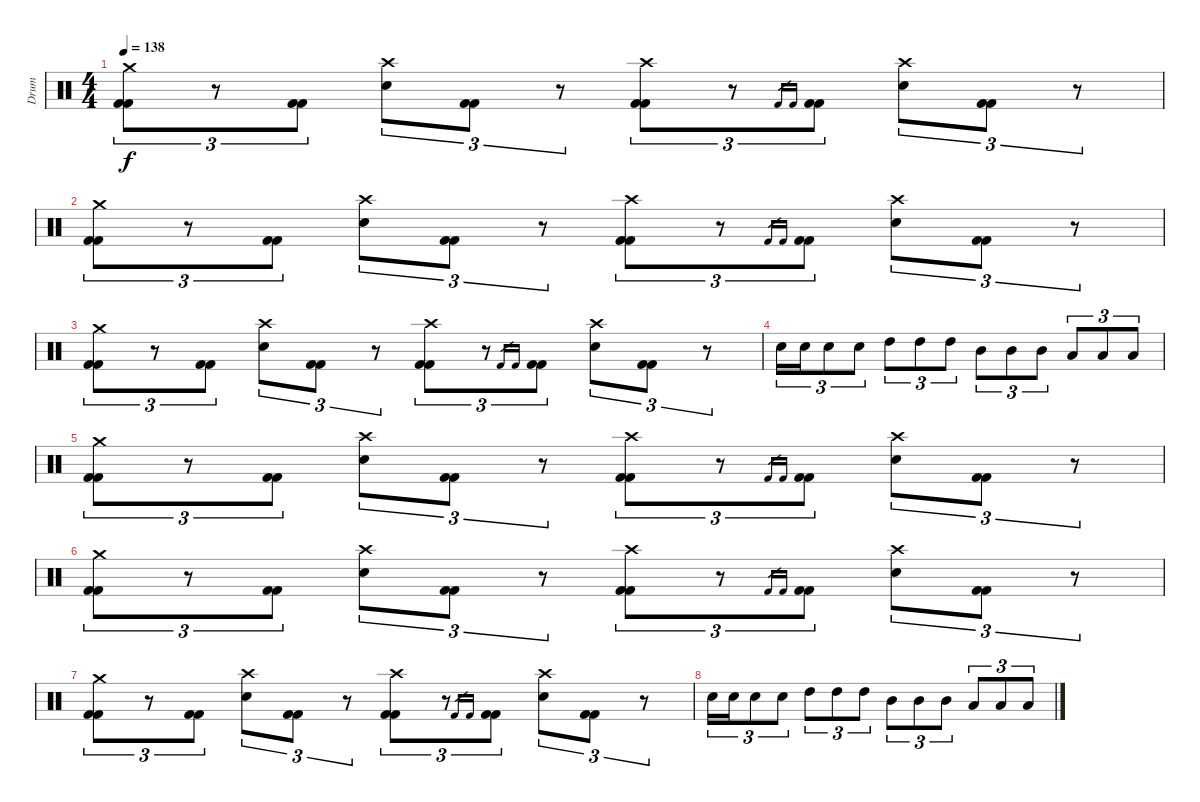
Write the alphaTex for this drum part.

\track ("Drum" "Drum") {instrument percussion}
\staff {score}
\articulation defaults
\ts (4 4)
\tempo 138
\clef neutral
\ks c
("Kick (hit) 2" "Kick (hit) 2" "Crash medium (hit)").8{tu (3 2) dy f} r.8{tu (3 2)} ("Kick (hit) 2" "Kick (hit) 2").8{tu (3 2)} ("Electric Snare (hit)" "Crash high (hit)").8{tu (3 2)} ("Kick (hit) 2" "Kick (hit) 2").8{tu (3 2)} r.8{tu (3 2)} ("Kick (hit) 2" "Kick (hit) 2" "Crash high (hit)").8{tu (3 2)} r.8{tu (3 2)} "Kick (hit) 2".16{gr} "Kick (hit) 2".16{gr} ("Kick (hit) 2" "Kick (hit) 2").8{tu (3 2)} ("Electric Snare (hit)" "Crash high (hit)").8{tu (3 2)} ("Kick (hit) 2" "Kick (hit) 2").8{tu (3 2)} r.8{tu (3 2)} |
("Kick (hit) 2" "Kick (hit) 2" "Crash medium (hit)").8{tu (3 2)} r.8{tu (3 2)} ("Kick (hit) 2" "Kick (hit) 2").8{tu (3 2)} ("Electric Snare (hit)" "Crash high (hit)").8{tu (3 2)} ("Kick (hit) 2" "Kick (hit) 2").8{tu (3 2)} r.8{tu (3 2)} ("Kick (hit) 2" "Kick (hit) 2" "Crash high (hit)").8{tu (3 2)} r.8{tu (3 2)} "Kick (hit) 2".16{gr} "Kick (hit) 2".16{gr} ("Kick (hit) 2" "Kick (hit) 2").8{tu (3 2)} ("Electric Snare (hit)" "Crash high (hit)").8{tu (3 2)} ("Kick (hit) 2" "Kick (hit) 2").8{tu (3 2)} r.8{tu (3 2)} |
("Kick (hit) 2" "Kick (hit) 2" "Crash medium (hit)").8{tu (3 2)} r.8{tu (3 2)} ("Kick (hit) 2" "Kick (hit) 2").8{tu (3 2)} ("Electric Snare (hit)" "Crash high (hit)").8{tu (3 2)} ("Kick (hit) 2" "Kick (hit) 2").8{tu (3 2)} r.8{tu (3 2)} ("Kick (hit) 2" "Kick (hit) 2" "Crash high (hit)").8{tu (3 2)} r.8{tu (3 2)} "Kick (hit) 2".16{gr} "Kick (hit) 2".16{gr} ("Kick (hit) 2" "Kick (hit) 2").8{tu (3 2)} ("Electric Snare (hit)" "Crash high (hit)").8{tu (3 2)} ("Kick (hit) 2" "Kick (hit) 2").8{tu (3 2)} r.8{tu (3 2)} |
"Electric Snare (hit)".16{tu (3 2)} "Electric Snare (hit)".16{tu (3 2)} "Electric Snare (hit)".8{tu (3 2)} "Electric Snare (hit)".8{tu (3 2)} "High Tom (hit)".8{tu (3 2)} "High Tom (hit)".8{tu (3 2)} "High Tom (hit)".8{tu (3 2)} "Mid Tom (hit)".8{tu (3 2)} "Mid Tom (hit)".8{tu (3 2)} "Mid Tom (hit)".8{tu (3 2)} "Low Tom (hit)".8{tu (3 2)} "Low Tom (hit)".8{tu (3 2)} "Low Tom (hit)".8{tu (3 2)} |
("Kick (hit) 2" "Kick (hit) 2" "Crash medium (hit)").8{tu (3 2)} r.8{tu (3 2)} ("Kick (hit) 2" "Kick (hit) 2").8{tu (3 2)} ("Electric Snare (hit)" "Crash high (hit)").8{tu (3 2)} ("Kick (hit) 2" "Kick (hit) 2").8{tu (3 2)} r.8{tu (3 2)} ("Kick (hit) 2" "Kick (hit) 2" "Crash high (hit)").8{tu (3 2)} r.8{tu (3 2)} "Kick (hit) 2".16{gr} "Kick (hit) 2".16{gr} ("Kick (hit) 2" "Kick (hit) 2").8{tu (3 2)} ("Electric Snare (hit)" "Crash high (hit)").8{tu (3 2)} ("Kick (hit) 2" "Kick (hit) 2").8{tu (3 2)} r.8{tu (3 2)} |
("Kick (hit) 2" "Kick (hit) 2" "Crash medium (hit)").8{tu (3 2)} r.8{tu (3 2)} ("Kick (hit) 2" "Kick (hit) 2").8{tu (3 2)} ("Electric Snare (hit)" "Crash high (hit)").8{tu (3 2)} ("Kick (hit) 2" "Kick (hit) 2").8{tu (3 2)} r.8{tu (3 2)} ("Kick (hit) 2" "Kick (hit) 2" "Crash high (hit)").8{tu (3 2)} r.8{tu (3 2)} "Kick (hit) 2".16{gr} "Kick (hit) 2".16{gr} ("Kick (hit) 2" "Kick (hit) 2").8{tu (3 2)} ("Electric Snare (hit)" "Crash high (hit)").8{tu (3 2)} ("Kick (hit) 2" "Kick (hit) 2").8{tu (3 2)} r.8{tu (3 2)} |
("Kick (hit) 2" "Kick (hit) 2" "Crash medium (hit)").8{tu (3 2)} r.8{tu (3 2)} ("Kick (hit) 2" "Kick (hit) 2").8{tu (3 2)} ("Electric Snare (hit)" "Crash high (hit)").8{tu (3 2)} ("Kick (hit) 2" "Kick (hit) 2").8{tu (3 2)} r.8{tu (3 2)} ("Kick (hit) 2" "Kick (hit) 2" "Crash high (hit)").8{tu (3 2)} r.8{tu (3 2)} "Kick (hit) 2".16{gr} "Kick (hit) 2".16{gr} ("Kick (hit) 2" "Kick (hit) 2").8{tu (3 2)} ("Electric Snare (hit)" "Crash high (hit)").8{tu (3 2)} ("Kick (hit) 2" "Kick (hit) 2").8{tu (3 2)} r.8{tu (3 2)} |
"Electric Snare (hit)".16{tu (3 2)} "Electric Snare (hit)".16{tu (3 2)} "Electric Snare (hit)".8{tu (3 2)} "Electric Snare (hit)".8{tu (3 2)} "High Tom (hit)".8{tu (3 2)} "High Tom (hit)".8{tu (3 2)} "High Tom (hit)".8{tu (3 2)} "Mid Tom (hit)".8{tu (3 2)} "Mid Tom (hit)".8{tu (3 2)} "Mid Tom (hit)".8{tu (3 2)} "Low Tom (hit)".8{tu (3 2)} "Low Tom (hit)".8{tu (3 2)} "Low Tom (hit)".8{tu (3 2)}
